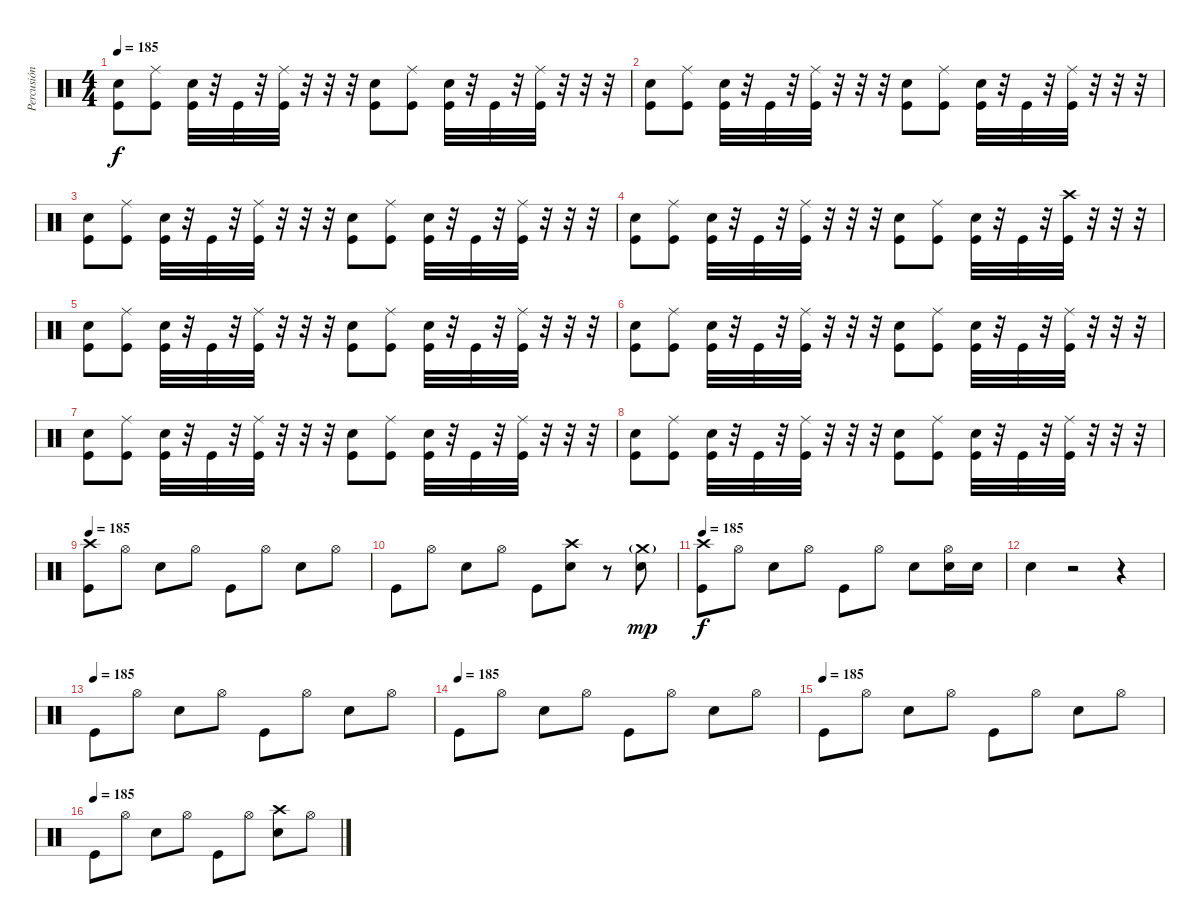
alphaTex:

\track ("Percusión" "Percusión") {instrument percussion}
\staff {score}
\articulation defaults
\ts (4 4)
\tempo 185
\clef neutral
\ks c
("Electric Snare (hit)" "Kick (hit)").8{dy f} ("Ride (middle)" "Kick (hit)").8 ("Electric Snare (hit)" "Kick (hit)").32 r.32 "Kick (hit)".32 r.32 ("Ride (middle)" "Kick (hit)").32 r.32 r.32 r.32 ("Electric Snare (hit)" "Kick (hit)").8 ("Ride (middle)" "Kick (hit)").8 ("Electric Snare (hit)" "Kick (hit)").32 r.32 "Kick (hit)".32 r.32 ("Ride (middle)" "Kick (hit)").32 r.32 r.32 r.32 |
("Electric Snare (hit)" "Kick (hit)").8 ("Ride (middle)" "Kick (hit)").8 ("Electric Snare (hit)" "Kick (hit)").32 r.32 "Kick (hit)".32 r.32 ("Ride (middle)" "Kick (hit)").32 r.32 r.32 r.32 ("Electric Snare (hit)" "Kick (hit)").8 ("Ride (middle)" "Kick (hit)").8 ("Electric Snare (hit)" "Kick (hit)").32 r.32 "Kick (hit)".32 r.32 ("Ride (middle)" "Kick (hit)").32 r.32 r.32 r.32 |
("Electric Snare (hit)" "Kick (hit)").8 ("Ride (middle)" "Kick (hit)").8 ("Electric Snare (hit)" "Kick (hit)").32 r.32 "Kick (hit)".32 r.32 ("Ride (middle)" "Kick (hit)").32 r.32 r.32 r.32 ("Electric Snare (hit)" "Kick (hit)").8 ("Ride (middle)" "Kick (hit)").8 ("Electric Snare (hit)" "Kick (hit)").32 r.32 "Kick (hit)".32 r.32 ("Ride (middle)" "Kick (hit)").32 r.32 r.32 r.32 |
("Electric Snare (hit)" "Kick (hit)").8 ("Ride (middle)" "Kick (hit)").8 ("Electric Snare (hit)" "Kick (hit)").32 r.32 "Kick (hit)".32 r.32 ("Ride (middle)" "Kick (hit)").32 r.32 r.32 r.32 ("Electric Snare (hit)" "Kick (hit)").8 ("Ride (middle)" "Kick (hit)").8 ("Electric Snare (hit)" "Kick (hit)").32 r.32 "Kick (hit)".32 r.32 ("Crash high (hit)" "Kick (hit)").32 r.32 r.32 r.32 |
("Electric Snare (hit)" "Kick (hit)").8 ("Ride (middle)" "Kick (hit)").8 ("Electric Snare (hit)" "Kick (hit)").32 r.32 "Kick (hit)".32 r.32 ("Ride (middle)" "Kick (hit)").32 r.32 r.32 r.32 ("Electric Snare (hit)" "Kick (hit)").8 ("Ride (middle)" "Kick (hit)").8 ("Electric Snare (hit)" "Kick (hit)").32 r.32 "Kick (hit)".32 r.32 ("Ride (middle)" "Kick (hit)").32 r.32 r.32 r.32 |
("Electric Snare (hit)" "Kick (hit)").8 ("Ride (middle)" "Kick (hit)").8 ("Electric Snare (hit)" "Kick (hit)").32 r.32 "Kick (hit)".32 r.32 ("Ride (middle)" "Kick (hit)").32 r.32 r.32 r.32 ("Electric Snare (hit)" "Kick (hit)").8 ("Ride (middle)" "Kick (hit)").8 ("Electric Snare (hit)" "Kick (hit)").32 r.32 "Kick (hit)".32 r.32 ("Ride (middle)" "Kick (hit)").32 r.32 r.32 r.32 |
("Electric Snare (hit)" "Kick (hit)").8 ("Ride (middle)" "Kick (hit)").8 ("Electric Snare (hit)" "Kick (hit)").32 r.32 "Kick (hit)".32 r.32 ("Ride (middle)" "Kick (hit)").32 r.32 r.32 r.32 ("Electric Snare (hit)" "Kick (hit)").8 ("Ride (middle)" "Kick (hit)").8 ("Electric Snare (hit)" "Kick (hit)").32 r.32 "Kick (hit)".32 r.32 ("Ride (middle)" "Kick (hit)").32 r.32 r.32 r.32 |
("Electric Snare (hit)" "Kick (hit)").8 ("Ride (middle)" "Kick (hit)").8 ("Electric Snare (hit)" "Kick (hit)").32 r.32 "Kick (hit)".32 r.32 ("Ride (middle)" "Kick (hit)").32 r.32 r.32 r.32 ("Electric Snare (hit)" "Kick (hit)").8 ("Ride (middle)" "Kick (hit)").8 ("Electric Snare (hit)" "Kick (hit)").32 r.32 "Kick (hit)".32 r.32 ("Ride (middle)" "Kick (hit)").32 r.32 r.32 r.32 |
\tempo 185
("Crash high (hit)" "Kick (hit)").8 "Hi-Hat (open)".8 "Electric Snare (hit)".8 "Hi-Hat (open)".8 "Kick (hit)".8 "Hi-Hat (open)".8 "Electric Snare (hit)".8 "Hi-Hat (open)".8 |
"Kick (hit)".8 "Hi-Hat (open)".8 "Electric Snare (hit)".8 "Hi-Hat (open)".8 "Kick (hit)".8 ("Crash high (hit)" "Electric Snare (hit)").8 r.8 ("Crash medium (hit)"{g} "Electric Snare (hit)").8{dy mp} |
\tempo 185
("Crash high (hit)" "Kick (hit)").8{dy f} "Hi-Hat (open)".8 "Electric Snare (hit)".8 "Hi-Hat (open)".8 "Kick (hit)".8 "Hi-Hat (open)".8 "Electric Snare (hit)".8 ("Hi-Hat (open)" "Electric Snare (hit)").16 "Electric Snare (hit)".16 |
"Electric Snare (hit)".4 r.2 r.4 |
\tempo (185)
"Kick (hit)".8 "Hi-Hat (open)".8 "Electric Snare (hit)".8 "Hi-Hat (open)".8 "Kick (hit)".8 "Hi-Hat (open)".8 "Electric Snare (hit)".8 "Hi-Hat (open)".8 |
\tempo (185)
"Kick (hit)".8 "Hi-Hat (open)".8 "Electric Snare (hit)".8 "Hi-Hat (open)".8 "Kick (hit)".8 "Hi-Hat (open)".8 "Electric Snare (hit)".8 "Hi-Hat (open)".8 |
\tempo (185)
"Kick (hit)".8 "Hi-Hat (open)".8 "Electric Snare (hit)".8 "Hi-Hat (open)".8 "Kick (hit)".8 "Hi-Hat (open)".8 "Electric Snare (hit)".8 "Hi-Hat (open)".8 |
\tempo (185)
"Kick (hit)".8 "Hi-Hat (open)".8 "Electric Snare (hit)".8 "Hi-Hat (open)".8 "Kick (hit)".8 "Hi-Hat (open)".8 ("Crash high (hit)" "Electric Snare (hit)").8 "Hi-Hat (open)".8
